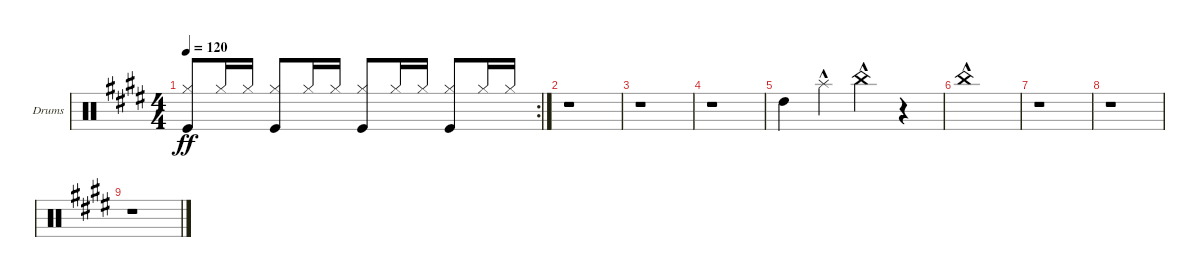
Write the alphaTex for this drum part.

\defaultSystemsLayout 4
\bracketExtendMode groupsimilarinstruments
\firstSystemTrackNameOrientation horizontal
\otherSystemsTrackNameOrientation horizontal
\track ("Drumkit" "Drums") {instrument percussion}
\staff {score}
\articulation defaults
\rc 2
\ts (4 4)
\tempo 120
\clef neutral
\ks e
("Hi-Hat (closed)" "Kick (hit)").8{dy ff beam invert} "Hi-Hat (closed)".16 "Hi-Hat (closed)".16 ("Hi-Hat (closed)" "Kick (hit)").8{beam invert} "Hi-Hat (closed)".16 "Hi-Hat (closed)".16 ("Hi-Hat (closed)" "Kick (hit)").8{beam invert} "Hi-Hat (closed)".16 "Hi-Hat (closed)".16 ("Hi-Hat (closed)" "Kick (hit)").8{beam invert} "Hi-Hat (closed)".16 "Hi-Hat (closed)".16 |
r.1 |
r.1 |
r.1 |
"High Tom (hit)".4 "Splash (hit)"{hac}.4 "China (hit)"{hac}.4 r.4 |
"China (hit)"{hac}.1 |
r.1 |
r.1 |
r.1
